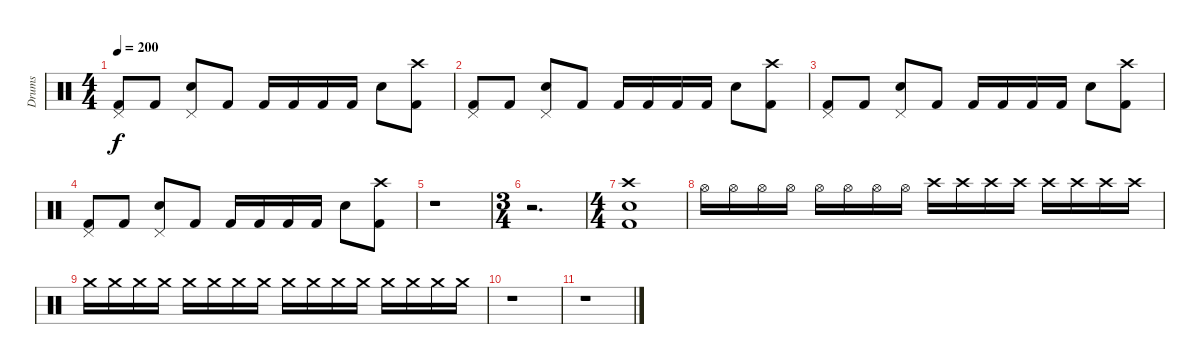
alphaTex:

\track ("Drums" "Drums") {instrument percussion}
\staff {score}
\articulation defaults
\ts (4 4)
\tempo 200
\clef neutral
\ks c
("Pedal Hi-Hat (hit)" "Kick (hit) 2").8{dy f} "Kick (hit) 2".8 ("Pedal Hi-Hat (hit)" "Electric Snare (hit)").8 "Kick (hit) 2".8 "Kick (hit) 2".16 "Kick (hit) 2".16 "Kick (hit) 2".16 "Kick (hit) 2".16 "Electric Snare (hit)".8 ("Crash high (hit)" "Kick (hit) 2").8 |
("Pedal Hi-Hat (hit)" "Kick (hit) 2").8 "Kick (hit) 2".8 ("Pedal Hi-Hat (hit)" "Electric Snare (hit)").8 "Kick (hit) 2".8 "Kick (hit) 2".16 "Kick (hit) 2".16 "Kick (hit) 2".16 "Kick (hit) 2".16 "Electric Snare (hit)".8 ("Crash high (hit)" "Kick (hit) 2").8 |
("Pedal Hi-Hat (hit)" "Kick (hit) 2").8 "Kick (hit) 2".8 ("Pedal Hi-Hat (hit)" "Electric Snare (hit)").8 "Kick (hit) 2".8 "Kick (hit) 2".16 "Kick (hit) 2".16 "Kick (hit) 2".16 "Kick (hit) 2".16 "Electric Snare (hit)".8 ("Crash high (hit)" "Kick (hit) 2").8 |
("Pedal Hi-Hat (hit)" "Kick (hit) 2").8 "Kick (hit) 2".8 ("Pedal Hi-Hat (hit)" "Electric Snare (hit)").8 "Kick (hit) 2".8 "Kick (hit) 2".16 "Kick (hit) 2".16 "Kick (hit) 2".16 "Kick (hit) 2".16 "Electric Snare (hit)".8 ("Crash high (hit)" "Kick (hit) 2").8 |
r.1 |
\ts (3 4)
r.2{d} |
\ts (4 4)
("Crash high (hit)" "Electric Snare (hit)" "Kick (hit) 2").1 |
"Hi-Hat (open)".16 "Hi-Hat (open)".16 "Hi-Hat (open)".16 "Hi-Hat (open)".16 "Hi-Hat (open)".16 "Hi-Hat (open)".16 "Hi-Hat (open)".16 "Hi-Hat (open)".16 "Crash high (hit)".16 "Crash high (hit)".16 "Crash high (hit)".16 "Crash high (hit)".16 "Crash high (hit)".16 "Crash high (hit)".16 "Crash high (hit)".16 "Crash high (hit)".16 |
"Crash medium (hit)".16 "Crash medium (hit)".16 "Crash medium (hit)".16 "Crash medium (hit)".16 "Crash medium (hit)".16 "Crash medium (hit)".16 "Crash medium (hit)".16 "Crash medium (hit)".16 "Crash medium (hit)".16 "Crash medium (hit)".16 "Crash medium (hit)".16 "Crash medium (hit)".16 "Crash medium (hit)".16 "Crash medium (hit)".16 "Crash medium (hit)".16 "Crash medium (hit)".16 |
r.1 |
r.1
